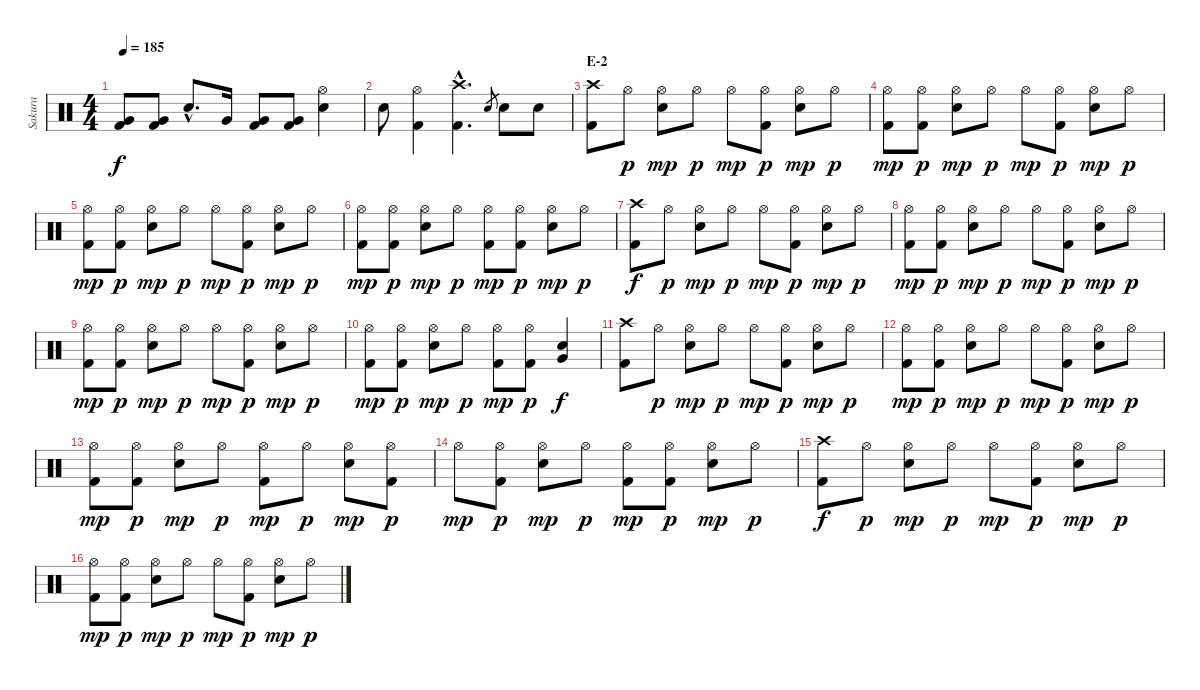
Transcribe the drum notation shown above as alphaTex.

\track ("Sakura" "Sakura") {instrument percussion}
\staff {score}
\articulation defaults
\ts (4 4)
\tempo 185
\clef neutral
\ks c
("Very Low Tom (hit)" "Kick (hit) 2").8{dy f} ("Very Low Tom (hit)" "Kick (hit) 2").8 "Electric Snare (hit)"{hac}.8{d} "Very Low Tom (hit)".16 ("Very Low Tom (hit)" "Kick (hit) 2").8 ("Very Low Tom (hit)" "Kick (hit) 2").8 ("Hi-Hat (open)" "Electric Snare (hit)").4 |
"Electric Snare (hit)".8 ("Hi-Hat (open)" "Kick (hit) 2").4 ("Crash high (hit)"{hac} "Kick (hit) 2"{hac}).4{d} "Electric Snare (hit)".8{gr} "Electric Snare (hit)".8 "Electric Snare (hit)".8 |
\section ("" "E-2")
("Crash high (hit)" "Kick (hit) 2").8 "Hi-Hat (open)".8{dy p} ("Hi-Hat (open)" "Electric Snare (hit)").8{dy mp} "Hi-Hat (open)".8{dy p} "Hi-Hat (open)".8{dy mp} ("Hi-Hat (open)" "Kick (hit) 2").8{dy p} ("Hi-Hat (open)" "Electric Snare (hit)").8{dy mp} "Hi-Hat (open)".8{dy p} |
("Hi-Hat (open)" "Kick (hit) 2").8{dy mp} ("Hi-Hat (open)" "Kick (hit) 2").8{dy p} ("Hi-Hat (open)" "Electric Snare (hit)").8{dy mp} "Hi-Hat (open)".8{dy p} "Hi-Hat (open)".8{dy mp} ("Hi-Hat (open)" "Kick (hit) 2").8{dy p} ("Hi-Hat (open)" "Electric Snare (hit)").8{dy mp} "Hi-Hat (open)".8{dy p} |
("Hi-Hat (open)" "Kick (hit) 2").8{dy mp} ("Hi-Hat (open)" "Kick (hit) 2").8{dy p} ("Hi-Hat (open)" "Electric Snare (hit)").8{dy mp} "Hi-Hat (open)".8{dy p} "Hi-Hat (open)".8{dy mp} ("Hi-Hat (open)" "Kick (hit) 2").8{dy p} ("Hi-Hat (open)" "Electric Snare (hit)").8{dy mp} "Hi-Hat (open)".8{dy p} |
("Hi-Hat (open)" "Kick (hit) 2").8{dy mp} ("Hi-Hat (open)" "Kick (hit) 2").8{dy p} ("Hi-Hat (open)" "Electric Snare (hit)").8{dy mp} "Hi-Hat (open)".8{dy p} ("Hi-Hat (open)" "Kick (hit) 2").8{dy mp} ("Hi-Hat (open)" "Kick (hit) 2").8{dy p} ("Hi-Hat (open)" "Electric Snare (hit)").8{dy mp} "Hi-Hat (open)".8{dy p} |
("Crash high (hit)" "Kick (hit) 2").8{dy f} "Hi-Hat (open)".8{dy p} ("Hi-Hat (open)" "Electric Snare (hit)").8{dy mp} "Hi-Hat (open)".8{dy p} "Hi-Hat (open)".8{dy mp} ("Hi-Hat (open)" "Kick (hit) 2").8{dy p} ("Hi-Hat (open)" "Electric Snare (hit)").8{dy mp} "Hi-Hat (open)".8{dy p} |
("Hi-Hat (open)" "Kick (hit) 2").8{dy mp} ("Hi-Hat (open)" "Kick (hit) 2").8{dy p} ("Hi-Hat (open)" "Electric Snare (hit)").8{dy mp} "Hi-Hat (open)".8{dy p} "Hi-Hat (open)".8{dy mp} ("Hi-Hat (open)" "Kick (hit) 2").8{dy p} ("Hi-Hat (open)" "Electric Snare (hit)").8{dy mp} "Hi-Hat (open)".8{dy p} |
("Hi-Hat (open)" "Kick (hit) 2").8{dy mp} ("Hi-Hat (open)" "Kick (hit) 2").8{dy p} ("Hi-Hat (open)" "Electric Snare (hit)").8{dy mp} "Hi-Hat (open)".8{dy p} "Hi-Hat (open)".8{dy mp} ("Hi-Hat (open)" "Kick (hit) 2").8{dy p} ("Hi-Hat (open)" "Electric Snare (hit)").8{dy mp} "Hi-Hat (open)".8{dy p} |
("Hi-Hat (open)" "Kick (hit) 2").8{dy mp} ("Hi-Hat (open)" "Kick (hit) 2").8{dy p} ("Hi-Hat (open)" "Electric Snare (hit)").8{dy mp} "Hi-Hat (open)".8{dy p} ("Hi-Hat (open)" "Kick (hit) 2").8{dy mp} ("Hi-Hat (open)" "Kick (hit) 2").8{dy p} ("Electric Snare (hit)" "Very Low Tom (hit)").4{dy f} |
("Crash high (hit)" "Kick (hit) 2").8 "Hi-Hat (open)".8{dy p} ("Hi-Hat (open)" "Electric Snare (hit)").8{dy mp} "Hi-Hat (open)".8{dy p} "Hi-Hat (open)".8{dy mp} ("Hi-Hat (open)" "Kick (hit) 2").8{dy p} ("Hi-Hat (open)" "Electric Snare (hit)").8{dy mp} "Hi-Hat (open)".8{dy p} |
("Hi-Hat (open)" "Kick (hit) 2").8{dy mp} ("Hi-Hat (open)" "Kick (hit) 2").8{dy p} ("Hi-Hat (open)" "Electric Snare (hit)").8{dy mp} "Hi-Hat (open)".8{dy p} "Hi-Hat (open)".8{dy mp} ("Hi-Hat (open)" "Kick (hit) 2").8{dy p} ("Hi-Hat (open)" "Electric Snare (hit)").8{dy mp} "Hi-Hat (open)".8{dy p} |
("Hi-Hat (open)" "Kick (hit) 2").8{dy mp} ("Hi-Hat (open)" "Kick (hit) 2").8{dy p} ("Hi-Hat (open)" "Electric Snare (hit)").8{dy mp} "Hi-Hat (open)".8{dy p} ("Hi-Hat (open)" "Kick (hit) 2").8{dy mp} "Hi-Hat (open)".8{dy p} ("Hi-Hat (open)" "Electric Snare (hit)").8{dy mp} ("Hi-Hat (open)" "Kick (hit) 2").8{dy p} |
"Hi-Hat (open)".8{dy mp} ("Hi-Hat (open)" "Kick (hit) 2").8{dy p} ("Hi-Hat (open)" "Electric Snare (hit)").8{dy mp} "Hi-Hat (open)".8{dy p} ("Hi-Hat (open)" "Kick (hit) 2").8{dy mp} ("Hi-Hat (open)" "Kick (hit) 2").8{dy p} ("Hi-Hat (open)" "Electric Snare (hit)").8{dy mp} "Hi-Hat (open)".8{dy p} |
("Crash high (hit)" "Kick (hit) 2").8{dy f} "Hi-Hat (open)".8{dy p} ("Hi-Hat (open)" "Electric Snare (hit)").8{dy mp} "Hi-Hat (open)".8{dy p} "Hi-Hat (open)".8{dy mp} ("Hi-Hat (open)" "Kick (hit) 2").8{dy p} ("Hi-Hat (open)" "Electric Snare (hit)").8{dy mp} "Hi-Hat (open)".8{dy p} |
("Hi-Hat (open)" "Kick (hit) 2").8{dy mp} ("Hi-Hat (open)" "Kick (hit) 2").8{dy p} ("Hi-Hat (open)" "Electric Snare (hit)").8{dy mp} "Hi-Hat (open)".8{dy p} "Hi-Hat (open)".8{dy mp} ("Hi-Hat (open)" "Kick (hit) 2").8{dy p} ("Hi-Hat (open)" "Electric Snare (hit)").8{dy mp} "Hi-Hat (open)".8{dy p}
